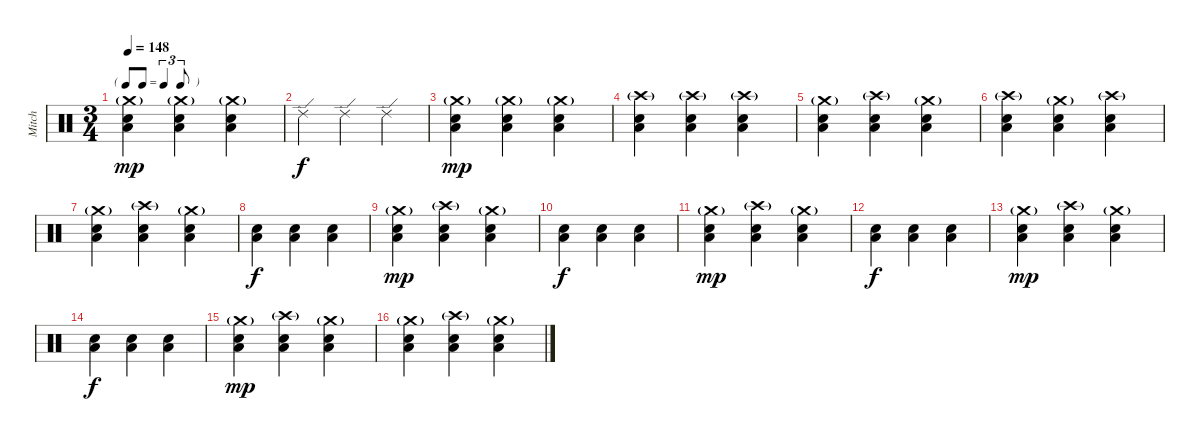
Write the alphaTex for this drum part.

\track ("Mitch" "Mitch") {instrument percussion}
\staff {score}
\articulation defaults
\ts (3 4)
\tf triplet8th
\tempo 148
\clef neutral
\ks c
("Snare (hit) 2" "Crash medium (hit)"{g} "Low Tom (hit)").4{dy mp} ("Snare (hit) 2" "Crash medium (hit)"{g} "Low Tom (hit)").4 ("Snare (hit) 2" "Crash medium (hit)"{g} "Low Tom (hit)").4 |
"Ride (edge) 2".4{dy f} "Ride (edge) 2".4 "Ride (edge) 2".4 |
("Snare (hit) 2" "Crash medium (hit)"{g} "Low Tom (hit)").4{dy mp} ("Snare (hit) 2" "Crash medium (hit)"{g} "Low Tom (hit)").4 ("Snare (hit) 2" "Crash medium (hit)"{g} "Low Tom (hit)").4 |
("Snare (hit) 2" "Crash high (hit)"{g} "Low Tom (hit)").4 ("Snare (hit) 2" "Crash high (hit)"{g} "Low Tom (hit)").4 ("Snare (hit) 2" "Crash high (hit)"{g} "Low Tom (hit)").4 |
("Snare (hit) 2" "Crash medium (hit)"{g} "Low Tom (hit)").4 ("Snare (hit) 2" "Crash high (hit)"{g} "Low Tom (hit)").4 ("Snare (hit) 2" "Crash medium (hit)"{g} "Low Tom (hit)").4 |
("Snare (hit) 2" "Crash high (hit)"{g} "Low Tom (hit)").4 ("Snare (hit) 2" "Crash medium (hit)"{g} "Low Tom (hit)").4 ("Snare (hit) 2" "Crash high (hit)"{g} "Low Tom (hit)").4 |
("Snare (hit) 2" "Crash medium (hit)"{g} "Low Tom (hit)").4 ("Snare (hit) 2" "Crash high (hit)"{g} "Low Tom (hit)").4 ("Snare (hit) 2" "Crash medium (hit)"{g} "Low Tom (hit)").4 |
("Snare (hit) 2" "Low Tom (hit)").4{dy f} ("Snare (hit) 2" "Low Tom (hit)").4 ("Snare (hit) 2" "Low Tom (hit)").4 |
("Snare (hit) 2" "Crash medium (hit)"{g} "Low Tom (hit)").4{dy mp} ("Snare (hit) 2" "Crash high (hit)"{g} "Low Tom (hit)").4 ("Snare (hit) 2" "Crash medium (hit)"{g} "Low Tom (hit)").4 |
("Snare (hit) 2" "Low Tom (hit)").4{dy f} ("Snare (hit) 2" "Low Tom (hit)").4 ("Snare (hit) 2" "Low Tom (hit)").4 |
("Snare (hit) 2" "Crash medium (hit)"{g} "Low Tom (hit)").4{dy mp} ("Snare (hit) 2" "Crash high (hit)"{g} "Low Tom (hit)").4 ("Snare (hit) 2" "Crash medium (hit)"{g} "Low Tom (hit)").4 |
("Snare (hit) 2" "Low Tom (hit)").4{dy f} ("Snare (hit) 2" "Low Tom (hit)").4 ("Snare (hit) 2" "Low Tom (hit)").4 |
("Snare (hit) 2" "Crash medium (hit)"{g} "Low Tom (hit)").4{dy mp} ("Snare (hit) 2" "Crash high (hit)"{g} "Low Tom (hit)").4 ("Snare (hit) 2" "Crash medium (hit)"{g} "Low Tom (hit)").4 |
("Snare (hit) 2" "Low Tom (hit)").4{dy f} ("Snare (hit) 2" "Low Tom (hit)").4 ("Snare (hit) 2" "Low Tom (hit)").4 |
("Snare (hit) 2" "Crash medium (hit)"{g} "Low Tom (hit)").4{dy mp} ("Snare (hit) 2" "Crash high (hit)"{g} "Low Tom (hit)").4 ("Snare (hit) 2" "Crash medium (hit)"{g} "Low Tom (hit)").4 |
("Snare (hit) 2" "Crash medium (hit)"{g} "Low Tom (hit)").4 ("Snare (hit) 2" "Crash high (hit)"{g} "Low Tom (hit)").4 ("Snare (hit) 2" "Crash medium (hit)"{g} "Low Tom (hit)").4
